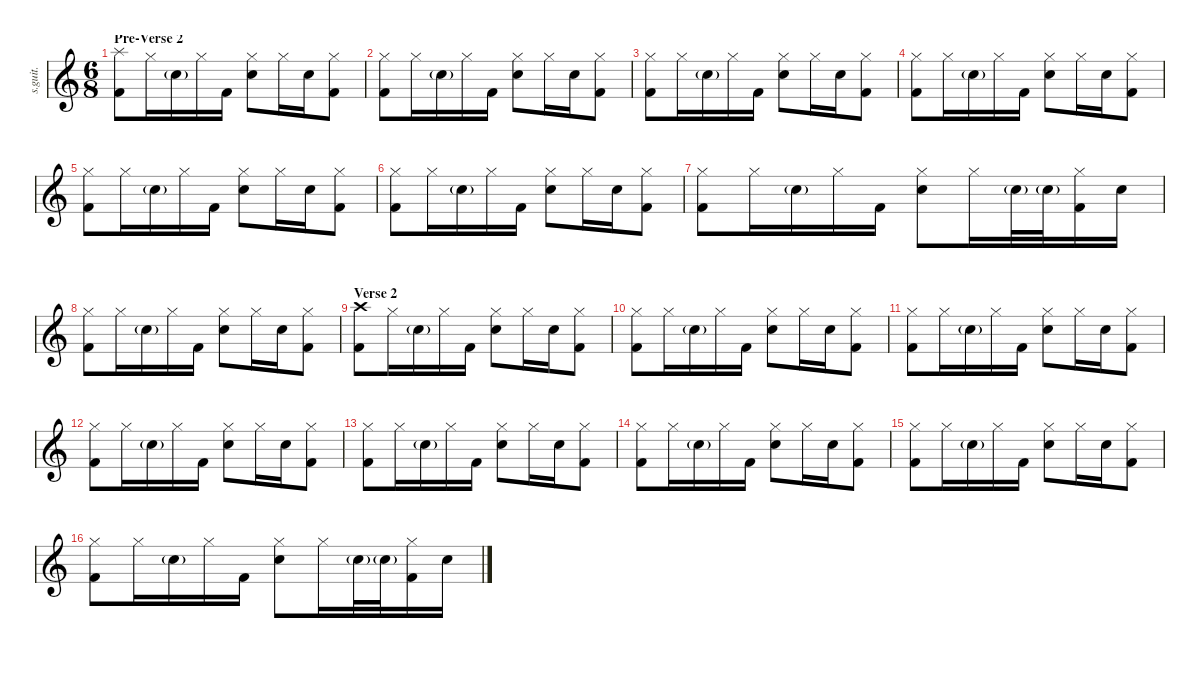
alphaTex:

\defaultSystemsLayout 4
\hideDynamics
\bracketExtendMode nobrackets
\track ("John Dolmayan" "s.guit.") {instrument percussion}
\staff {score}
\articulation defaults
\ts (6 8)
\section ("" "Pre-Verse 2")
\tempo (114 hide)
\clef g2
\ks c
("Splash (hit)" "Kick (hit) 2").8{lyrics (0 "") lyrics (1 "") lyrics (2 "") lyrics (3 "") lyrics (4 "") dy f} "Hi-Hat (closed)".16{lyrics (0 "") lyrics (1 "") lyrics (2 "") lyrics (3 "") lyrics (4 "")} "Snare (hit) 2"{g}.16{lyrics (0 "") lyrics (1 "") lyrics (2 "") lyrics (3 "") lyrics (4 "") dy ff} "Hi-Hat (closed)".16{lyrics (0 "") lyrics (1 "") lyrics (2 "") lyrics (3 "") lyrics (4 "") dy f} "Kick (hit) 2".16{lyrics (0 "") lyrics (1 "") lyrics (2 "") lyrics (3 "") lyrics (4 "")} ("Hi-Hat (closed)" "Snare (hit) 2").8{lyrics (0 "") lyrics (1 "") lyrics (2 "") lyrics (3 "") lyrics (4 "")} "Hi-Hat (closed)".16{lyrics (0 "") lyrics (1 "") lyrics (2 "") lyrics (3 "") lyrics (4 "")} "Snare (hit) 2".16{lyrics (0 "") lyrics (1 "") lyrics (2 "") lyrics (3 "") lyrics (4 "")} ("Hi-Hat (closed)" "Kick (hit) 2").8{lyrics (0 "") lyrics (1 "") lyrics (2 "") lyrics (3 "") lyrics (4 "")} |
("Hi-Hat (closed)" "Kick (hit) 2").8{lyrics (0 "") lyrics (1 "") lyrics (2 "") lyrics (3 "") lyrics (4 "")} "Hi-Hat (closed)".16{lyrics (0 "") lyrics (1 "") lyrics (2 "") lyrics (3 "") lyrics (4 "")} "Snare (hit) 2"{g}.16{lyrics (0 "") lyrics (1 "") lyrics (2 "") lyrics (3 "") lyrics (4 "") dy ff} "Hi-Hat (closed)".16{lyrics (0 "") lyrics (1 "") lyrics (2 "") lyrics (3 "") lyrics (4 "") dy f} "Kick (hit) 2".16{lyrics (0 "") lyrics (1 "") lyrics (2 "") lyrics (3 "") lyrics (4 "")} ("Hi-Hat (closed)" "Snare (hit) 2").8{lyrics (0 "") lyrics (1 "") lyrics (2 "") lyrics (3 "") lyrics (4 "")} "Hi-Hat (closed)".16{lyrics (0 "") lyrics (1 "") lyrics (2 "") lyrics (3 "") lyrics (4 "")} "Snare (hit) 2".16{lyrics (0 "") lyrics (1 "") lyrics (2 "") lyrics (3 "") lyrics (4 "")} ("Hi-Hat (closed)" "Kick (hit) 2").8{lyrics (0 "") lyrics (1 "") lyrics (2 "") lyrics (3 "") lyrics (4 "")} |
("Hi-Hat (closed)" "Kick (hit) 2").8{lyrics (0 "") lyrics (1 "") lyrics (2 "") lyrics (3 "") lyrics (4 "")} "Hi-Hat (closed)".16{lyrics (0 "") lyrics (1 "") lyrics (2 "") lyrics (3 "") lyrics (4 "")} "Snare (hit) 2"{g}.16{lyrics (0 "") lyrics (1 "") lyrics (2 "") lyrics (3 "") lyrics (4 "") dy ff} "Hi-Hat (closed)".16{lyrics (0 "") lyrics (1 "") lyrics (2 "") lyrics (3 "") lyrics (4 "") dy f} "Kick (hit) 2".16{lyrics (0 "") lyrics (1 "") lyrics (2 "") lyrics (3 "") lyrics (4 "")} ("Hi-Hat (closed)" "Snare (hit) 2").8{lyrics (0 "") lyrics (1 "") lyrics (2 "") lyrics (3 "") lyrics (4 "")} "Hi-Hat (closed)".16{lyrics (0 "") lyrics (1 "") lyrics (2 "") lyrics (3 "") lyrics (4 "")} "Snare (hit) 2".16{lyrics (0 "") lyrics (1 "") lyrics (2 "") lyrics (3 "") lyrics (4 "")} ("Hi-Hat (closed)" "Kick (hit) 2").8{lyrics (0 "") lyrics (1 "") lyrics (2 "") lyrics (3 "") lyrics (4 "")} |
("Hi-Hat (closed)" "Kick (hit) 2").8{lyrics (0 "") lyrics (1 "") lyrics (2 "") lyrics (3 "") lyrics (4 "")} "Hi-Hat (closed)".16{lyrics (0 "") lyrics (1 "") lyrics (2 "") lyrics (3 "") lyrics (4 "")} "Snare (hit) 2"{g}.16{lyrics (0 "") lyrics (1 "") lyrics (2 "") lyrics (3 "") lyrics (4 "") dy ff} "Hi-Hat (closed)".16{lyrics (0 "") lyrics (1 "") lyrics (2 "") lyrics (3 "") lyrics (4 "") dy f} "Kick (hit) 2".16{lyrics (0 "") lyrics (1 "") lyrics (2 "") lyrics (3 "") lyrics (4 "")} ("Hi-Hat (closed)" "Snare (hit) 2").8{lyrics (0 "") lyrics (1 "") lyrics (2 "") lyrics (3 "") lyrics (4 "")} "Hi-Hat (closed)".16{lyrics (0 "") lyrics (1 "") lyrics (2 "") lyrics (3 "") lyrics (4 "")} "Snare (hit) 2".16{lyrics (0 "") lyrics (1 "") lyrics (2 "") lyrics (3 "") lyrics (4 "")} ("Hi-Hat (closed)" "Kick (hit) 2").8{lyrics (0 "") lyrics (1 "") lyrics (2 "") lyrics (3 "") lyrics (4 "")} |
("Hi-Hat (closed)" "Kick (hit) 2").8{lyrics (0 "") lyrics (1 "") lyrics (2 "") lyrics (3 "") lyrics (4 "")} "Hi-Hat (closed)".16{lyrics (0 "") lyrics (1 "") lyrics (2 "") lyrics (3 "") lyrics (4 "")} "Snare (hit) 2"{g}.16{lyrics (0 "") lyrics (1 "") lyrics (2 "") lyrics (3 "") lyrics (4 "") dy ff} "Hi-Hat (closed)".16{lyrics (0 "") lyrics (1 "") lyrics (2 "") lyrics (3 "") lyrics (4 "") dy f} "Kick (hit) 2".16{lyrics (0 "") lyrics (1 "") lyrics (2 "") lyrics (3 "") lyrics (4 "")} ("Hi-Hat (closed)" "Snare (hit) 2").8{lyrics (0 "") lyrics (1 "") lyrics (2 "") lyrics (3 "") lyrics (4 "")} "Hi-Hat (closed)".16{lyrics (0 "") lyrics (1 "") lyrics (2 "") lyrics (3 "") lyrics (4 "")} "Snare (hit) 2".16{lyrics (0 "") lyrics (1 "") lyrics (2 "") lyrics (3 "") lyrics (4 "")} ("Hi-Hat (closed)" "Kick (hit) 2").8{lyrics (0 "") lyrics (1 "") lyrics (2 "") lyrics (3 "") lyrics (4 "")} |
("Hi-Hat (closed)" "Kick (hit) 2").8{lyrics (0 "") lyrics (1 "") lyrics (2 "") lyrics (3 "") lyrics (4 "")} "Hi-Hat (closed)".16{lyrics (0 "") lyrics (1 "") lyrics (2 "") lyrics (3 "") lyrics (4 "")} "Snare (hit) 2"{g}.16{lyrics (0 "") lyrics (1 "") lyrics (2 "") lyrics (3 "") lyrics (4 "") dy ff} "Hi-Hat (closed)".16{lyrics (0 "") lyrics (1 "") lyrics (2 "") lyrics (3 "") lyrics (4 "") dy f} "Kick (hit) 2".16{lyrics (0 "") lyrics (1 "") lyrics (2 "") lyrics (3 "") lyrics (4 "")} ("Hi-Hat (closed)" "Snare (hit) 2").8{lyrics (0 "") lyrics (1 "") lyrics (2 "") lyrics (3 "") lyrics (4 "")} "Hi-Hat (closed)".16{lyrics (0 "") lyrics (1 "") lyrics (2 "") lyrics (3 "") lyrics (4 "")} "Snare (hit) 2".16{lyrics (0 "") lyrics (1 "") lyrics (2 "") lyrics (3 "") lyrics (4 "")} ("Hi-Hat (closed)" "Kick (hit) 2").8{lyrics (0 "") lyrics (1 "") lyrics (2 "") lyrics (3 "") lyrics (4 "")} |
("Hi-Hat (closed)" "Kick (hit) 2").8{lyrics (0 "") lyrics (1 "") lyrics (2 "") lyrics (3 "") lyrics (4 "")} "Hi-Hat (closed)".16{lyrics (0 "") lyrics (1 "") lyrics (2 "") lyrics (3 "") lyrics (4 "")} "Snare (hit) 2"{g}.16{lyrics (0 "") lyrics (1 "") lyrics (2 "") lyrics (3 "") lyrics (4 "") dy ff} "Hi-Hat (closed)".16{lyrics (0 "") lyrics (1 "") lyrics (2 "") lyrics (3 "") lyrics (4 "") dy f} "Kick (hit) 2".16{lyrics (0 "") lyrics (1 "") lyrics (2 "") lyrics (3 "") lyrics (4 "")} ("Hi-Hat (closed)" "Snare (hit) 2").8{lyrics (0 "") lyrics (1 "") lyrics (2 "") lyrics (3 "") lyrics (4 "")} "Hi-Hat (closed)".16{lyrics (0 "") lyrics (1 "") lyrics (2 "") lyrics (3 "") lyrics (4 "")} "Snare (hit) 2"{g}.32{lyrics (0 "") lyrics (1 "") lyrics (2 "") lyrics (3 "") lyrics (4 "") dy ff} "Snare (hit) 2"{g}.32{lyrics (0 "") lyrics (1 "") lyrics (2 "") lyrics (3 "") lyrics (4 "")} ("Hi-Hat (closed)" "Kick (hit) 2").16{lyrics (0 "") lyrics (1 "") lyrics (2 "") lyrics (3 "") lyrics (4 "") dy f} "Snare (hit) 2".16{lyrics (0 "") lyrics (1 "") lyrics (2 "") lyrics (3 "") lyrics (4 "")} |
("Hi-Hat (closed)" "Kick (hit) 2").8{lyrics (0 "") lyrics (1 "") lyrics (2 "") lyrics (3 "") lyrics (4 "")} "Hi-Hat (closed)".16{lyrics (0 "") lyrics (1 "") lyrics (2 "") lyrics (3 "") lyrics (4 "")} "Snare (hit) 2"{g}.16{lyrics (0 "") lyrics (1 "") lyrics (2 "") lyrics (3 "") lyrics (4 "") dy ff} "Hi-Hat (closed)".16{lyrics (0 "") lyrics (1 "") lyrics (2 "") lyrics (3 "") lyrics (4 "") dy f} "Kick (hit) 2".16{lyrics (0 "") lyrics (1 "") lyrics (2 "") lyrics (3 "") lyrics (4 "")} ("Hi-Hat (closed)" "Snare (hit) 2").8{lyrics (0 "") lyrics (1 "") lyrics (2 "") lyrics (3 "") lyrics (4 "")} "Hi-Hat (closed)".16{lyrics (0 "") lyrics (1 "") lyrics (2 "") lyrics (3 "") lyrics (4 "")} "Snare (hit) 2".16{lyrics (0 "") lyrics (1 "") lyrics (2 "") lyrics (3 "") lyrics (4 "")} ("Hi-Hat (closed)" "Kick (hit) 2").8{lyrics (0 "") lyrics (1 "") lyrics (2 "") lyrics (3 "") lyrics (4 "")} |
\section ("" "Verse 2")
("Crash high (hit)" "Kick (hit) 2").8{lyrics (0 "") lyrics (1 "") lyrics (2 "") lyrics (3 "") lyrics (4 "")} "Hi-Hat (closed)".16{lyrics (0 "") lyrics (1 "") lyrics (2 "") lyrics (3 "") lyrics (4 "")} "Snare (hit) 2"{g}.16{lyrics (0 "") lyrics (1 "") lyrics (2 "") lyrics (3 "") lyrics (4 "") dy ff} "Hi-Hat (closed)".16{lyrics (0 "") lyrics (1 "") lyrics (2 "") lyrics (3 "") lyrics (4 "") dy f} "Kick (hit) 2".16{lyrics (0 "") lyrics (1 "") lyrics (2 "") lyrics (3 "") lyrics (4 "")} ("Hi-Hat (closed)" "Snare (hit) 2").8{lyrics (0 "") lyrics (1 "") lyrics (2 "") lyrics (3 "") lyrics (4 "")} "Hi-Hat (closed)".16{lyrics (0 "") lyrics (1 "") lyrics (2 "") lyrics (3 "") lyrics (4 "")} "Snare (hit) 2".16{lyrics (0 "") lyrics (1 "") lyrics (2 "") lyrics (3 "") lyrics (4 "")} ("Hi-Hat (closed)" "Kick (hit) 2").8{lyrics (0 "") lyrics (1 "") lyrics (2 "") lyrics (3 "") lyrics (4 "")} |
("Hi-Hat (closed)" "Kick (hit) 2").8{lyrics (0 "") lyrics (1 "") lyrics (2 "") lyrics (3 "") lyrics (4 "")} "Hi-Hat (closed)".16{lyrics (0 "") lyrics (1 "") lyrics (2 "") lyrics (3 "") lyrics (4 "")} "Snare (hit) 2"{g}.16{lyrics (0 "") lyrics (1 "") lyrics (2 "") lyrics (3 "") lyrics (4 "") dy ff} "Hi-Hat (closed)".16{lyrics (0 "") lyrics (1 "") lyrics (2 "") lyrics (3 "") lyrics (4 "") dy f} "Kick (hit) 2".16{lyrics (0 "") lyrics (1 "") lyrics (2 "") lyrics (3 "") lyrics (4 "")} ("Hi-Hat (closed)" "Snare (hit) 2").8{lyrics (0 "") lyrics (1 "") lyrics (2 "") lyrics (3 "") lyrics (4 "")} "Hi-Hat (closed)".16{lyrics (0 "") lyrics (1 "") lyrics (2 "") lyrics (3 "") lyrics (4 "")} "Snare (hit) 2".16{lyrics (0 "") lyrics (1 "") lyrics (2 "") lyrics (3 "") lyrics (4 "")} ("Hi-Hat (closed)" "Kick (hit) 2").8{lyrics (0 "") lyrics (1 "") lyrics (2 "") lyrics (3 "") lyrics (4 "")} |
("Hi-Hat (closed)" "Kick (hit) 2").8{lyrics (0 "") lyrics (1 "") lyrics (2 "") lyrics (3 "") lyrics (4 "")} "Hi-Hat (closed)".16{lyrics (0 "") lyrics (1 "") lyrics (2 "") lyrics (3 "") lyrics (4 "")} "Snare (hit) 2"{g}.16{lyrics (0 "") lyrics (1 "") lyrics (2 "") lyrics (3 "") lyrics (4 "") dy ff} "Hi-Hat (closed)".16{lyrics (0 "") lyrics (1 "") lyrics (2 "") lyrics (3 "") lyrics (4 "") dy f} "Kick (hit) 2".16{lyrics (0 "") lyrics (1 "") lyrics (2 "") lyrics (3 "") lyrics (4 "")} ("Hi-Hat (closed)" "Snare (hit) 2").8{lyrics (0 "") lyrics (1 "") lyrics (2 "") lyrics (3 "") lyrics (4 "")} "Hi-Hat (closed)".16{lyrics (0 "") lyrics (1 "") lyrics (2 "") lyrics (3 "") lyrics (4 "")} "Snare (hit) 2".16{lyrics (0 "") lyrics (1 "") lyrics (2 "") lyrics (3 "") lyrics (4 "")} ("Hi-Hat (closed)" "Kick (hit) 2").8{lyrics (0 "") lyrics (1 "") lyrics (2 "") lyrics (3 "") lyrics (4 "")} |
("Hi-Hat (closed)" "Kick (hit) 2").8{lyrics (0 "") lyrics (1 "") lyrics (2 "") lyrics (3 "") lyrics (4 "")} "Hi-Hat (closed)".16{lyrics (0 "") lyrics (1 "") lyrics (2 "") lyrics (3 "") lyrics (4 "")} "Snare (hit) 2"{g}.16{lyrics (0 "") lyrics (1 "") lyrics (2 "") lyrics (3 "") lyrics (4 "") dy ff} "Hi-Hat (closed)".16{lyrics (0 "") lyrics (1 "") lyrics (2 "") lyrics (3 "") lyrics (4 "") dy f} "Kick (hit) 2".16{lyrics (0 "") lyrics (1 "") lyrics (2 "") lyrics (3 "") lyrics (4 "")} ("Hi-Hat (closed)" "Snare (hit) 2").8{lyrics (0 "") lyrics (1 "") lyrics (2 "") lyrics (3 "") lyrics (4 "")} "Hi-Hat (closed)".16{lyrics (0 "") lyrics (1 "") lyrics (2 "") lyrics (3 "") lyrics (4 "")} "Snare (hit) 2".16{lyrics (0 "") lyrics (1 "") lyrics (2 "") lyrics (3 "") lyrics (4 "")} ("Hi-Hat (closed)" "Kick (hit) 2").8{lyrics (0 "") lyrics (1 "") lyrics (2 "") lyrics (3 "") lyrics (4 "")} |
("Hi-Hat (closed)" "Kick (hit) 2").8{lyrics (0 "") lyrics (1 "") lyrics (2 "") lyrics (3 "") lyrics (4 "")} "Hi-Hat (closed)".16{lyrics (0 "") lyrics (1 "") lyrics (2 "") lyrics (3 "") lyrics (4 "")} "Snare (hit) 2"{g}.16{lyrics (0 "") lyrics (1 "") lyrics (2 "") lyrics (3 "") lyrics (4 "") dy ff} "Hi-Hat (closed)".16{lyrics (0 "") lyrics (1 "") lyrics (2 "") lyrics (3 "") lyrics (4 "") dy f} "Kick (hit) 2".16{lyrics (0 "") lyrics (1 "") lyrics (2 "") lyrics (3 "") lyrics (4 "")} ("Hi-Hat (closed)" "Snare (hit) 2").8{lyrics (0 "") lyrics (1 "") lyrics (2 "") lyrics (3 "") lyrics (4 "")} "Hi-Hat (closed)".16{lyrics (0 "") lyrics (1 "") lyrics (2 "") lyrics (3 "") lyrics (4 "")} "Snare (hit) 2".16{lyrics (0 "") lyrics (1 "") lyrics (2 "") lyrics (3 "") lyrics (4 "")} ("Hi-Hat (closed)" "Kick (hit) 2").8{lyrics (0 "") lyrics (1 "") lyrics (2 "") lyrics (3 "") lyrics (4 "")} |
("Hi-Hat (closed)" "Kick (hit) 2").8{lyrics (0 "") lyrics (1 "") lyrics (2 "") lyrics (3 "") lyrics (4 "")} "Hi-Hat (closed)".16{lyrics (0 "") lyrics (1 "") lyrics (2 "") lyrics (3 "") lyrics (4 "")} "Snare (hit) 2"{g}.16{lyrics (0 "") lyrics (1 "") lyrics (2 "") lyrics (3 "") lyrics (4 "") dy ff} "Hi-Hat (closed)".16{lyrics (0 "") lyrics (1 "") lyrics (2 "") lyrics (3 "") lyrics (4 "") dy f} "Kick (hit) 2".16{lyrics (0 "") lyrics (1 "") lyrics (2 "") lyrics (3 "") lyrics (4 "")} ("Hi-Hat (closed)" "Snare (hit) 2").8{lyrics (0 "") lyrics (1 "") lyrics (2 "") lyrics (3 "") lyrics (4 "")} "Hi-Hat (closed)".16{lyrics (0 "") lyrics (1 "") lyrics (2 "") lyrics (3 "") lyrics (4 "")} "Snare (hit) 2".16{lyrics (0 "") lyrics (1 "") lyrics (2 "") lyrics (3 "") lyrics (4 "")} ("Hi-Hat (closed)" "Kick (hit) 2").8{lyrics (0 "") lyrics (1 "") lyrics (2 "") lyrics (3 "") lyrics (4 "")} |
("Hi-Hat (closed)" "Kick (hit) 2").8{lyrics (0 "") lyrics (1 "") lyrics (2 "") lyrics (3 "") lyrics (4 "")} "Hi-Hat (closed)".16{lyrics (0 "") lyrics (1 "") lyrics (2 "") lyrics (3 "") lyrics (4 "")} "Snare (hit) 2"{g}.16{lyrics (0 "") lyrics (1 "") lyrics (2 "") lyrics (3 "") lyrics (4 "") dy ff} "Hi-Hat (closed)".16{lyrics (0 "") lyrics (1 "") lyrics (2 "") lyrics (3 "") lyrics (4 "") dy f} "Kick (hit) 2".16{lyrics (0 "") lyrics (1 "") lyrics (2 "") lyrics (3 "") lyrics (4 "")} ("Hi-Hat (closed)" "Snare (hit) 2").8{lyrics (0 "") lyrics (1 "") lyrics (2 "") lyrics (3 "") lyrics (4 "")} "Hi-Hat (closed)".16{lyrics (0 "") lyrics (1 "") lyrics (2 "") lyrics (3 "") lyrics (4 "")} "Snare (hit) 2".16{lyrics (0 "") lyrics (1 "") lyrics (2 "") lyrics (3 "") lyrics (4 "")} ("Hi-Hat (closed)" "Kick (hit) 2").8{lyrics (0 "") lyrics (1 "") lyrics (2 "") lyrics (3 "") lyrics (4 "")} |
("Hi-Hat (closed)" "Kick (hit) 2").8{lyrics (0 "") lyrics (1 "") lyrics (2 "") lyrics (3 "") lyrics (4 "")} "Hi-Hat (closed)".16{lyrics (0 "") lyrics (1 "") lyrics (2 "") lyrics (3 "") lyrics (4 "")} "Snare (hit) 2"{g}.16{lyrics (0 "") lyrics (1 "") lyrics (2 "") lyrics (3 "") lyrics (4 "") dy ff} "Hi-Hat (closed)".16{lyrics (0 "") lyrics (1 "") lyrics (2 "") lyrics (3 "") lyrics (4 "") dy f} "Kick (hit) 2".16{lyrics (0 "") lyrics (1 "") lyrics (2 "") lyrics (3 "") lyrics (4 "")} ("Hi-Hat (closed)" "Snare (hit) 2").8{lyrics (0 "") lyrics (1 "") lyrics (2 "") lyrics (3 "") lyrics (4 "")} "Hi-Hat (closed)".16{lyrics (0 "") lyrics (1 "") lyrics (2 "") lyrics (3 "") lyrics (4 "")} "Snare (hit) 2"{g}.32{lyrics (0 "") lyrics (1 "") lyrics (2 "") lyrics (3 "") lyrics (4 "") dy ff} "Snare (hit) 2"{g}.32{lyrics (0 "") lyrics (1 "") lyrics (2 "") lyrics (3 "") lyrics (4 "")} ("Hi-Hat (closed)" "Kick (hit) 2").16{lyrics (0 "") lyrics (1 "") lyrics (2 "") lyrics (3 "") lyrics (4 "") dy f} "Snare (hit) 2".16{lyrics (0 "") lyrics (1 "") lyrics (2 "") lyrics (3 "") lyrics (4 "")}
